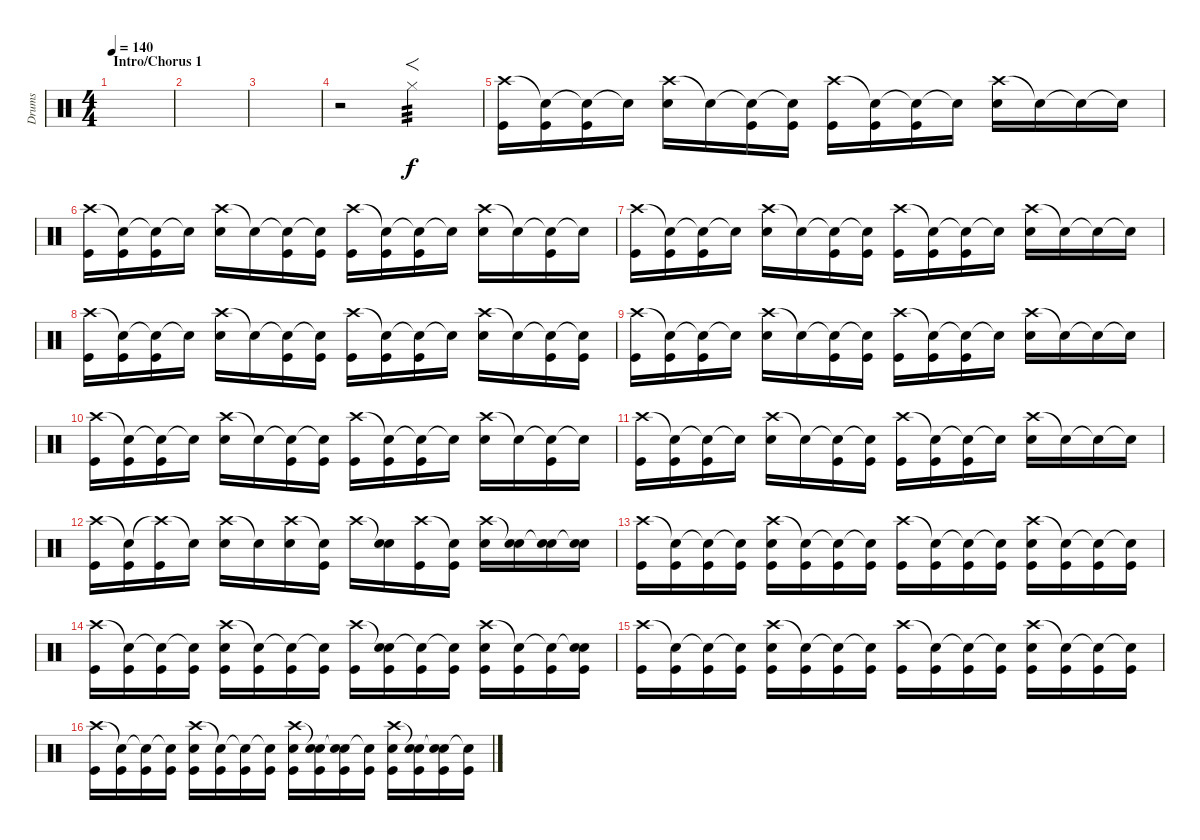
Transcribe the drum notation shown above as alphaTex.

\track ("Drums" "Drums") {instrument percussion}
\staff {score}
\articulation defaults
\ts (4 4)
\section ("" "Intro/Chorus 1")
\tempo 140
\clef neutral
\ks c
|
|
|
r.2 "Hi-Hat (closed)".2{f tp 3} |
("Crash high (hit)" "Kick (hit)").16 ("Snare (hit)"{t} "Kick (hit)").16 ("Snare (hit)"{t} "Kick (hit)").16 "Snare (hit)"{t}.16 ("Crash high (hit)" "Electric Snare (hit)").16 "Snare (hit)"{t}.16 ("Snare (hit)"{t} "Kick (hit)").16 ("Snare (hit)"{t} "Kick (hit)").16 ("Crash high (hit)" "Kick (hit)").16 ("Snare (hit)"{t} "Kick (hit)").16 ("Snare (hit)"{t} "Kick (hit)").16 "Snare (hit)"{t}.16 ("Crash high (hit)" "Electric Snare (hit)").16 "Snare (hit)"{t}.16 "Snare (hit)"{t}.16 "Snare (hit)"{t}.16 |
("Crash high (hit)" "Kick (hit)").16 ("Snare (hit)"{t} "Kick (hit)").16 ("Snare (hit)"{t} "Kick (hit)").16 "Snare (hit)"{t}.16 ("Crash high (hit)" "Electric Snare (hit)").16 "Snare (hit)"{t}.16 ("Snare (hit)"{t} "Kick (hit)").16 ("Snare (hit)"{t} "Kick (hit)").16 ("Crash high (hit)" "Kick (hit)").16 ("Snare (hit)"{t} "Kick (hit)").16 ("Snare (hit)"{t} "Kick (hit)").16 "Snare (hit)"{t}.16 ("Crash high (hit)" "Electric Snare (hit)").16 "Snare (hit)"{t}.16 ("Snare (hit)"{t} "Kick (hit)").16 "Snare (hit)"{t}.16 |
("Crash high (hit)" "Kick (hit)").16 ("Snare (hit)"{t} "Kick (hit)").16 ("Snare (hit)"{t} "Kick (hit)").16 "Snare (hit)"{t}.16 ("Crash high (hit)" "Electric Snare (hit)").16 "Snare (hit)"{t}.16 ("Snare (hit)"{t} "Kick (hit)").16 ("Snare (hit)"{t} "Kick (hit)").16 ("Crash high (hit)" "Kick (hit)").16 ("Snare (hit)"{t} "Kick (hit)").16 ("Snare (hit)"{t} "Kick (hit)").16 "Snare (hit)"{t}.16 ("Crash high (hit)" "Electric Snare (hit)").16 "Snare (hit)"{t}.16 "Snare (hit)"{t}.16 "Snare (hit)"{t}.16 |
("Crash high (hit)" "Kick (hit)").16 ("Snare (hit)"{t} "Kick (hit)").16 ("Snare (hit)"{t} "Kick (hit)").16 "Snare (hit)"{t}.16 ("Crash high (hit)" "Electric Snare (hit)").16 "Snare (hit)"{t}.16 ("Snare (hit)"{t} "Kick (hit)").16 ("Snare (hit)"{t} "Kick (hit)").16 ("Crash high (hit)" "Kick (hit)").16 ("Snare (hit)"{t} "Kick (hit)").16 ("Snare (hit)"{t} "Kick (hit)").16 "Snare (hit)"{t}.16 ("Crash high (hit)" "Electric Snare (hit)").16 "Snare (hit)"{t}.16 ("Snare (hit)"{t} "Kick (hit)").16 ("Snare (hit)"{t} "Kick (hit)").16 |
("Crash high (hit)" "Kick (hit)").16 ("Snare (hit)"{t} "Kick (hit)").16 ("Snare (hit)"{t} "Kick (hit)").16 "Snare (hit)"{t}.16 ("Crash high (hit)" "Electric Snare (hit)").16 "Snare (hit)"{t}.16 ("Snare (hit)"{t} "Kick (hit)").16 ("Snare (hit)"{t} "Kick (hit)").16 ("Crash high (hit)" "Kick (hit)").16 ("Snare (hit)"{t} "Kick (hit)").16 ("Snare (hit)"{t} "Kick (hit)").16 "Snare (hit)"{t}.16 ("Crash high (hit)" "Electric Snare (hit)").16 "Snare (hit)"{t}.16 "Snare (hit)"{t}.16 "Snare (hit)"{t}.16 |
("Crash high (hit)" "Kick (hit)").16 ("Snare (hit)"{t} "Kick (hit)").16 ("Snare (hit)"{t} "Kick (hit)").16 "Snare (hit)"{t}.16 ("Crash high (hit)" "Electric Snare (hit)").16 "Snare (hit)"{t}.16 ("Snare (hit)"{t} "Kick (hit)").16 ("Snare (hit)"{t} "Kick (hit)").16 ("Crash high (hit)" "Kick (hit)").16 ("Snare (hit)"{t} "Kick (hit)").16 ("Snare (hit)"{t} "Kick (hit)").16 "Snare (hit)"{t}.16 ("Crash high (hit)" "Electric Snare (hit)").16 "Snare (hit)"{t}.16 ("Snare (hit)"{t} "Kick (hit)").16 "Snare (hit)"{t}.16 |
("Crash high (hit)" "Kick (hit)").16 ("Snare (hit)"{t} "Kick (hit)").16 ("Snare (hit)"{t} "Kick (hit)").16 "Snare (hit)"{t}.16 ("Crash high (hit)" "Electric Snare (hit)").16 "Snare (hit)"{t}.16 ("Snare (hit)"{t} "Kick (hit)").16 ("Snare (hit)"{t} "Kick (hit)").16 ("Crash high (hit)" "Kick (hit)").16 ("Snare (hit)"{t} "Kick (hit)").16 ("Snare (hit)"{t} "Kick (hit)").16 "Snare (hit)"{t}.16 ("Crash high (hit)" "Electric Snare (hit)").16 "Snare (hit)"{t}.16 "Snare (hit)"{t}.16 "Snare (hit)"{t}.16 |
("Crash high (hit)" "Kick (hit)").16 ("Snare (hit)"{t} "Kick (hit)").16 ("Crash high (hit)"{t} "Kick (hit)").16 "Snare (hit)"{t}.16 ("Crash high (hit)" "Electric Snare (hit)").16 "Snare (hit)"{t}.16 ("Crash high (hit)" "Electric Snare (hit)").16 ("Snare (hit)"{t} "Kick (hit)").16 "Crash high (hit)".16 ("Snare (hit)"{t} "Electric Snare (hit)").16 ("Crash high (hit)" "Kick (hit)").16 ("Snare (hit)"{t} "Kick (hit)").16 ("Crash high (hit)" "Electric Snare (hit)").16 ("Snare (hit)"{t} "Electric Snare (hit)").16 ("Snare (hit)"{t} "Electric Snare (hit)").16 ("Snare (hit)"{t} "Electric Snare (hit)").16 |
("Crash high (hit)" "Kick (hit)").16 ("Snare (hit)"{t} "Kick (hit)").16 ("Snare (hit)"{t} "Kick (hit)").16 ("Snare (hit)"{t} "Kick (hit)").16 ("Crash high (hit)" "Electric Snare (hit)" "Kick (hit)").16 ("Snare (hit)"{t} "Kick (hit)").16 ("Snare (hit)"{t} "Kick (hit)").16 ("Snare (hit)"{t} "Kick (hit)").16 ("Crash high (hit)" "Kick (hit)").16 ("Snare (hit)"{t} "Kick (hit)").16 ("Snare (hit)"{t} "Kick (hit)").16 ("Snare (hit)"{t} "Kick (hit)").16 ("Crash high (hit)" "Electric Snare (hit)" "Kick (hit)").16 ("Snare (hit)"{t} "Kick (hit)").16 ("Snare (hit)"{t} "Kick (hit)").16 ("Snare (hit)"{t} "Kick (hit)").16 |
("Crash high (hit)" "Kick (hit)").16 ("Snare (hit)"{t} "Kick (hit)").16 ("Snare (hit)"{t} "Kick (hit)").16 ("Snare (hit)"{t} "Kick (hit)").16 ("Crash high (hit)" "Electric Snare (hit)" "Kick (hit)").16 ("Snare (hit)"{t} "Kick (hit)").16 ("Snare (hit)"{t} "Kick (hit)").16 ("Snare (hit)"{t} "Kick (hit)").16 ("Crash high (hit)" "Kick (hit)").16 ("Snare (hit)"{t} "Electric Snare (hit)" "Kick (hit)").16 ("Snare (hit)"{t} "Kick (hit)").16 ("Snare (hit)"{t} "Kick (hit)").16 ("Crash high (hit)" "Electric Snare (hit)" "Kick (hit)").16 ("Snare (hit)"{t} "Kick (hit)").16 ("Snare (hit)"{t} "Kick (hit)").16 ("Snare (hit)"{t} "Electric Snare (hit)" "Kick (hit)").16 |
("Crash high (hit)" "Kick (hit)").16 ("Snare (hit)"{t} "Kick (hit)").16 ("Snare (hit)"{t} "Kick (hit)").16 ("Snare (hit)"{t} "Kick (hit)").16 ("Crash high (hit)" "Electric Snare (hit)" "Kick (hit)").16 ("Snare (hit)"{t} "Kick (hit)").16 ("Snare (hit)"{t} "Kick (hit)").16 ("Snare (hit)"{t} "Kick (hit)").16 ("Crash high (hit)" "Kick (hit)").16 ("Snare (hit)"{t} "Kick (hit)").16 ("Snare (hit)"{t} "Kick (hit)").16 ("Snare (hit)"{t} "Kick (hit)").16 ("Crash high (hit)" "Electric Snare (hit)" "Kick (hit)").16 ("Snare (hit)"{t} "Kick (hit)").16 ("Snare (hit)"{t} "Kick (hit)").16 ("Snare (hit)"{t} "Kick (hit)").16 |
("Crash high (hit)" "Kick (hit)").16 ("Snare (hit)"{t} "Kick (hit)").16 ("Snare (hit)"{t} "Kick (hit)").16 ("Snare (hit)"{t} "Kick (hit)").16 ("Crash high (hit)" "Electric Snare (hit)" "Kick (hit)").16 ("Snare (hit)"{t} "Kick (hit)").16 ("Snare (hit)"{t} "Kick (hit)").16 ("Snare (hit)"{t} "Kick (hit)").16 ("Crash high (hit)" "Electric Snare (hit)" "Kick (hit)").16 ("Snare (hit)"{t} "Electric Snare (hit)" "Kick (hit)").16 ("Snare (hit)"{t} "Electric Snare (hit)" "Kick (hit)").16 ("Snare (hit)"{t} "Kick (hit)").16 ("Crash high (hit)" "Electric Snare (hit)" "Kick (hit)").16 ("Snare (hit)"{t} "Electric Snare (hit)" "Kick (hit)").16 ("Snare (hit)"{t} "Electric Snare (hit)" "Kick (hit)").16 ("Snare (hit)"{t} "Kick (hit)").16
